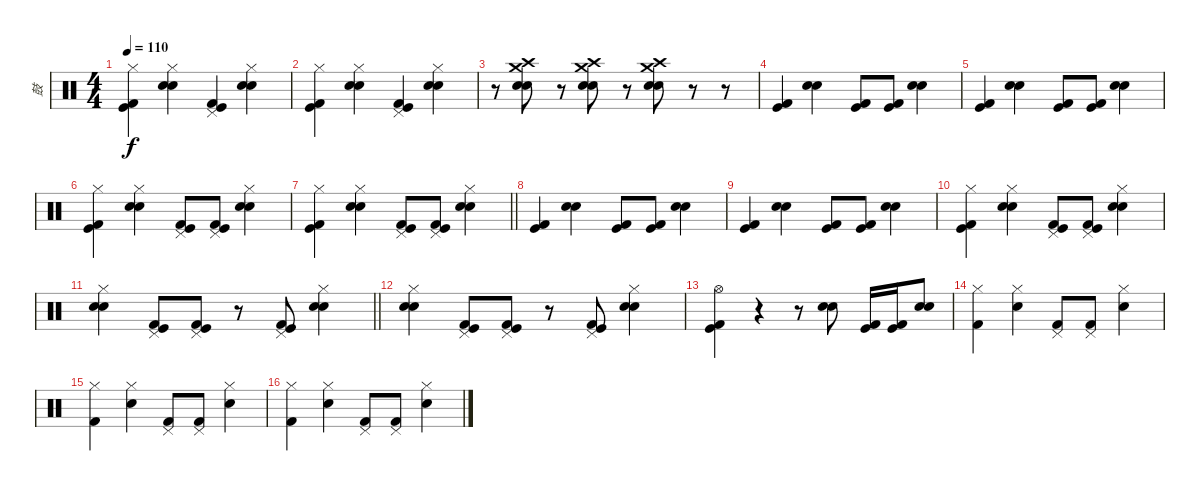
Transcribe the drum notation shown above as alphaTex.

\track ("鼓" "鼓") {instrument percussion}
\staff {score}
\articulation defaults
\ts (4 4)
\tempo 110
\clef neutral
\ks c
("Kick (hit) 2" "Kick (hit)" "Hi-Hat (closed)").4{dy f} ("Electric Snare (hit)" "Snare (hit) 2" "Hi-Hat (closed)").4 ("Kick (hit) 2" "Kick (hit)" "Pedal Hi-Hat (hit)").4 ("Electric Snare (hit)" "Snare (hit) 2" "Hi-Hat (closed)").4 |
("Kick (hit) 2" "Kick (hit)" "Hi-Hat (closed)").4 ("Electric Snare (hit)" "Snare (hit) 2" "Hi-Hat (closed)").4 ("Kick (hit) 2" "Kick (hit)" "Pedal Hi-Hat (hit)").4 ("Electric Snare (hit)" "Snare (hit) 2" "Hi-Hat (closed)").4 |
r.8 ("Snare (hit) 2" "Electric Snare (hit)" "Crash high (hit)" "Crash medium (hit)").8 r.8 ("Snare (hit) 2" "Electric Snare (hit)" "Crash high (hit)" "Crash medium (hit)").8 r.8 ("Snare (hit) 2" "Electric Snare (hit)" "Crash high (hit)" "Crash medium (hit)").8 r.8 r.8 |
("Kick (hit) 2" "Kick (hit)").4 ("Electric Snare (hit)" "Snare (hit) 2").4 ("Kick (hit) 2" "Kick (hit)").8 ("Kick (hit) 2" "Kick (hit)").8 ("Electric Snare (hit)" "Snare (hit) 2").4 |
("Kick (hit) 2" "Kick (hit)").4 ("Electric Snare (hit)" "Snare (hit) 2").4 ("Kick (hit) 2" "Kick (hit)").8 ("Kick (hit) 2" "Kick (hit)").8 ("Electric Snare (hit)" "Snare (hit) 2").4 |
("Kick (hit) 2" "Kick (hit)" "Hi-Hat (closed)").4 ("Electric Snare (hit)" "Snare (hit) 2" "Hi-Hat (closed)").4 ("Kick (hit) 2" "Kick (hit)" "Pedal Hi-Hat (hit)").8 ("Kick (hit) 2" "Kick (hit)" "Pedal Hi-Hat (hit)").8 ("Electric Snare (hit)" "Snare (hit) 2" "Hi-Hat (closed)").4 |
\barLineRight lightlight
("Kick (hit) 2" "Kick (hit)" "Hi-Hat (closed)").4 ("Electric Snare (hit)" "Snare (hit) 2" "Hi-Hat (closed)").4 ("Kick (hit) 2" "Kick (hit)" "Pedal Hi-Hat (hit)").8 ("Kick (hit) 2" "Kick (hit)" "Pedal Hi-Hat (hit)").8 ("Electric Snare (hit)" "Snare (hit) 2" "Hi-Hat (closed)").4 |
("Kick (hit) 2" "Kick (hit)").4 ("Electric Snare (hit)" "Snare (hit) 2").4 ("Kick (hit) 2" "Kick (hit)").8 ("Kick (hit) 2" "Kick (hit)").8 ("Electric Snare (hit)" "Snare (hit) 2").4 |
("Kick (hit) 2" "Kick (hit)").4 ("Electric Snare (hit)" "Snare (hit) 2").4 ("Kick (hit) 2" "Kick (hit)").8 ("Kick (hit) 2" "Kick (hit)").8 ("Electric Snare (hit)" "Snare (hit) 2").4 |
("Kick (hit) 2" "Kick (hit)" "Hi-Hat (closed)").4 ("Electric Snare (hit)" "Snare (hit) 2" "Hi-Hat (closed)").4 ("Kick (hit) 2" "Kick (hit)" "Pedal Hi-Hat (hit)").8 ("Kick (hit) 2" "Kick (hit)" "Pedal Hi-Hat (hit)").8 ("Electric Snare (hit)" "Snare (hit) 2" "Hi-Hat (closed)").4 |
\barLineRight lightlight
("Electric Snare (hit)" "Snare (hit) 2" "Hi-Hat (closed)").4 ("Kick (hit) 2" "Kick (hit)" "Pedal Hi-Hat (hit)").8 ("Kick (hit) 2" "Kick (hit)" "Pedal Hi-Hat (hit)").8 r.8 ("Kick (hit) 2" "Kick (hit)" "Pedal Hi-Hat (hit)").8 ("Electric Snare (hit)" "Snare (hit) 2" "Hi-Hat (closed)").4 |
("Electric Snare (hit)" "Snare (hit) 2" "Hi-Hat (closed)").4 ("Kick (hit) 2" "Kick (hit)" "Pedal Hi-Hat (hit)").8 ("Kick (hit) 2" "Kick (hit)" "Pedal Hi-Hat (hit)").8 r.8 ("Kick (hit) 2" "Kick (hit)" "Pedal Hi-Hat (hit)").8 ("Electric Snare (hit)" "Snare (hit) 2" "Hi-Hat (closed)").4 |
("Kick (hit)" "Kick (hit) 2" "Hi-Hat (open)").4 r.4 r.8 ("Electric Snare (hit)" "Snare (hit) 2").8 ("Kick (hit)" "Kick (hit) 2").16 ("Kick (hit)" "Kick (hit) 2").16 ("Electric Snare (hit)" "Snare (hit) 2").8 |
("Kick (hit) 2" "Hi-Hat (closed)").4 ("Snare (hit) 2" "Hi-Hat (closed)").4 ("Kick (hit) 2" "Pedal Hi-Hat (hit)").8 ("Kick (hit) 2" "Pedal Hi-Hat (hit)").8 ("Snare (hit) 2" "Hi-Hat (closed)").4 |
("Kick (hit) 2" "Hi-Hat (closed)").4 ("Snare (hit) 2" "Hi-Hat (closed)").4 ("Kick (hit) 2" "Pedal Hi-Hat (hit)").8 ("Kick (hit) 2" "Pedal Hi-Hat (hit)").8 ("Snare (hit) 2" "Hi-Hat (closed)").4 |
("Kick (hit) 2" "Hi-Hat (closed)").4 ("Snare (hit) 2" "Hi-Hat (closed)").4 ("Kick (hit) 2" "Pedal Hi-Hat (hit)").8 ("Kick (hit) 2" "Pedal Hi-Hat (hit)").8 ("Snare (hit) 2" "Hi-Hat (closed)").4
